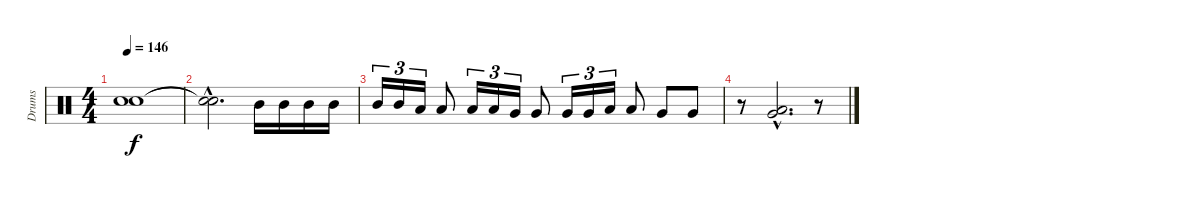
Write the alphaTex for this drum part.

\track ("Drums" "Drums") {instrument percussion}
\staff {score}
\articulation defaults
\ts (4 4)
\tempo 146
\clef neutral
\ks c
("Snare (hit)"{t} "Snare (hit)"{t}).1{dy f} |
("Snare (hit)"{hac t} "Snare (hit)"{hac t}).2{d} "Mid Tom (hit)".16 "Mid Tom (hit)".16 "Mid Tom (hit)".16 "Mid Tom (hit)".16 |
"Mid Tom (hit)".16{tu (3 2)} "Mid Tom (hit)".16{tu (3 2)} "Low Tom (hit)".16{tu (3 2)} "Low Tom (hit)".8 "Low Tom (hit)".16{tu (3 2)} "Low Tom (hit)".16{tu (3 2)} "Very Low Tom (hit)".16{tu (3 2)} "Very Low Tom (hit)".8 "Very Low Tom (hit)".16{tu (3 2)} "Very Low Tom (hit)".16{tu (3 2)} "Low Floor Tom (hit)".16{tu (3 2)} "Low Floor Tom (hit)".8 "Very Low Tom (hit)".8 "Very Low Tom (hit)".8 |
r.8 ("Very Low Tom (hit)"{hac} "Low Floor Tom (hit)"{hac}).2{d} r.8
